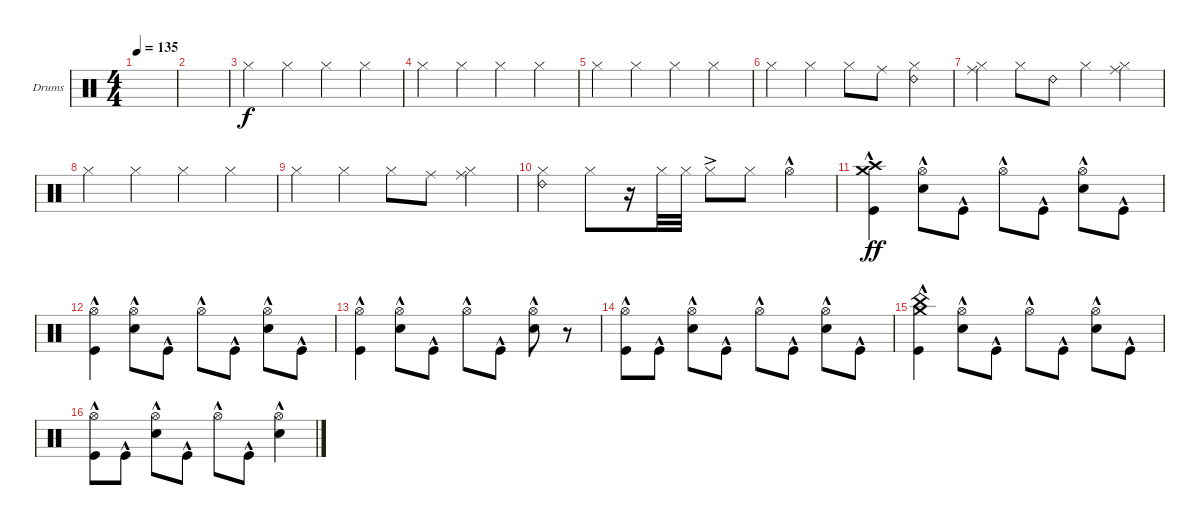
\defaultSystemsLayout 4
\bracketExtendMode groupsimilarinstruments
\firstSystemTrackNameOrientation horizontal
\otherSystemsTrackNameOrientation horizontal
\track ("Drumkit" "Drums") {instrument percussion}
\staff {score}
\articulation defaults
\ts (4 4)
\tempo 135
\clef neutral
\ks c
|
|
"Hi-Hat (closed)".4 "Hi-Hat (closed)".4 "Hi-Hat (closed)".4 "Hi-Hat (closed)".4 |
"Hi-Hat (closed)".4 "Hi-Hat (closed)".4 "Hi-Hat (closed)".4 "Hi-Hat (closed)".4 |
"Hi-Hat (closed)".4 "Hi-Hat (closed)".4 "Hi-Hat (closed)".4 "Hi-Hat (closed)".4 |
"Hi-Hat (closed)".4 "Hi-Hat (closed)".4 "Hi-Hat (closed)".8 "Ride (middle)".8 ("Hi-Hat (closed)" "Ride (bell) 2").4 |
("Hi-Hat (closed)" "Ride (middle)").4 "Hi-Hat (closed)".8 "Ride (bell) 2".8 "Hi-Hat (closed)".4 ("Hi-Hat (closed)" "Ride (middle)").4 |
"Hi-Hat (closed)".4 "Hi-Hat (closed)".4 "Hi-Hat (closed)".4 "Hi-Hat (closed)".4 |
"Hi-Hat (closed)".4 "Hi-Hat (closed)".4 "Hi-Hat (closed)".8 "Ride (middle)".8 ("Hi-Hat (closed)" "Ride (middle)").4 |
("Hi-Hat (closed)" "Ride (bell) 2").4 "Hi-Hat (closed)".8 r.16 "Hi-Hat (closed)".32{dy f} "Hi-Hat (closed)".32 "Hi-Hat (closed)"{ac}.8 "Hi-Hat (closed)".8 "Hi-Hat (open)"{hac}.4 |
("Kick (hit)"{hac} "Crash medium (hit)"{hac} "Crash high (hit)"{hac}).4{dy ff} ("Snare (hit) 2"{hac} "Hi-Hat (open)"{hac}).8 "Kick (hit)"{hac}.8 "Hi-Hat (open)"{hac}.8 "Kick (hit)"{hac}.8 ("Snare (hit) 2"{hac} "Hi-Hat (open)"{hac}).8 "Kick (hit)"{hac}.8 |
("Kick (hit)"{hac} "Hi-Hat (open)"{hac}).4 ("Snare (hit) 2"{hac} "Hi-Hat (open)"{hac}).8 "Kick (hit)"{hac}.8 "Hi-Hat (open)"{hac}.8 "Kick (hit)"{hac}.8 ("Snare (hit) 2"{hac} "Hi-Hat (open)"{hac}).8 "Kick (hit)"{hac}.8 |
("Kick (hit)"{hac} "Hi-Hat (open)"{hac}).4 ("Snare (hit) 2"{hac} "Hi-Hat (open)"{hac}).8 "Kick (hit)"{hac}.8 "Hi-Hat (open)"{hac}.8 "Kick (hit)"{hac}.8 ("Snare (hit) 2"{hac} "Hi-Hat (open)"{hac}).8 r.8 |
("Kick (hit)"{hac} "Hi-Hat (open)"{hac}).8 "Kick (hit)"{hac}.8 ("Snare (hit) 2"{hac} "Hi-Hat (open)"{hac}).8 "Kick (hit)"{hac}.8 "Hi-Hat (open)"{hac}.8 "Kick (hit)"{hac}.8 ("Snare (hit) 2"{hac} "Hi-Hat (open)").8 "Kick (hit)"{hac}.8 |
("Kick (hit)"{hac} "Crash medium (hit)"{hac} "China (hit)"{hac}).4 ("Snare (hit) 2"{hac} "Hi-Hat (open)"{hac}).8 "Kick (hit)"{hac}.8 "Hi-Hat (open)"{hac}.8 "Kick (hit)"{hac}.8 ("Snare (hit) 2"{hac} "Hi-Hat (open)"{hac}).8 "Kick (hit)"{hac}.8 |
("Kick (hit)"{hac} "Hi-Hat (open)"{hac}).8 "Kick (hit)"{hac}.8 ("Snare (hit) 2"{hac} "Hi-Hat (open)"{hac}).8 "Kick (hit)"{hac}.8 "Hi-Hat (open)"{hac}.8 "Kick (hit)"{hac}.8 ("Snare (hit) 2"{hac} "Hi-Hat (open)"{hac}).4
